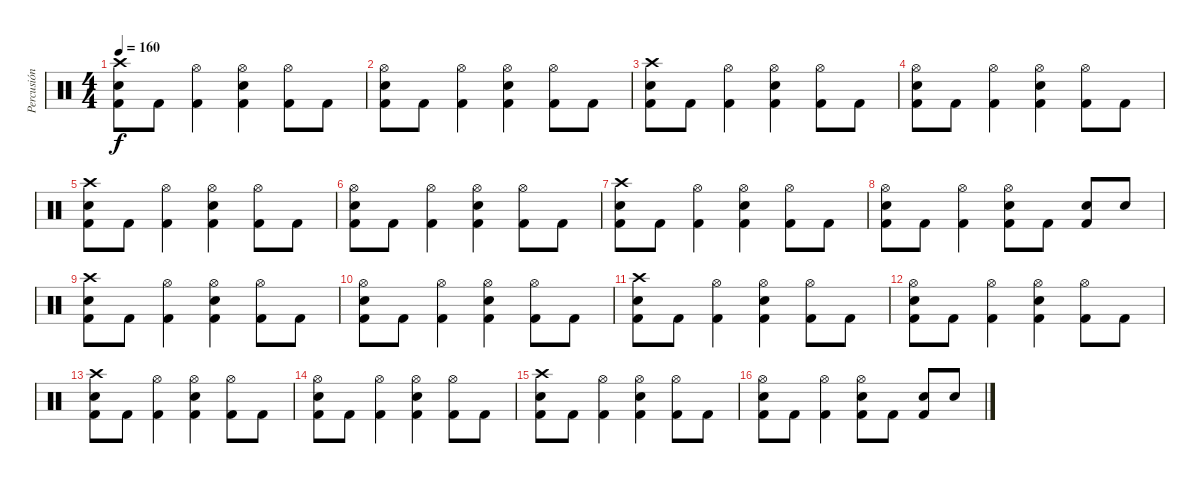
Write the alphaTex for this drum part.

\track ("Percusión" "Percusión") {instrument percussion}
\staff {score}
\articulation defaults
\ts (4 4)
\tempo 160
\clef neutral
\ks c
("Crash high (hit)" "Snare (hit) 2" "Kick (hit) 2").8{dy f} "Kick (hit) 2".8 ("Hi-Hat (open)" "Kick (hit) 2").4 ("Hi-Hat (open)" "Snare (hit) 2" "Kick (hit) 2").4 ("Hi-Hat (open)" "Kick (hit) 2").8 "Kick (hit) 2".8 |
("Hi-Hat (open)" "Snare (hit) 2" "Kick (hit) 2").8 "Kick (hit) 2".8 ("Hi-Hat (open)" "Kick (hit) 2").4 ("Hi-Hat (open)" "Snare (hit) 2" "Kick (hit) 2").4 ("Hi-Hat (open)" "Kick (hit) 2").8 "Kick (hit) 2".8 |
("Crash high (hit)" "Snare (hit) 2" "Kick (hit) 2").8 "Kick (hit) 2".8 ("Hi-Hat (open)" "Kick (hit) 2").4 ("Hi-Hat (open)" "Snare (hit) 2" "Kick (hit) 2").4 ("Hi-Hat (open)" "Kick (hit) 2").8 "Kick (hit) 2".8 |
("Hi-Hat (open)" "Snare (hit) 2" "Kick (hit) 2").8 "Kick (hit) 2".8 ("Hi-Hat (open)" "Kick (hit) 2").4 ("Hi-Hat (open)" "Snare (hit) 2" "Kick (hit) 2").4 ("Hi-Hat (open)" "Kick (hit) 2").8 "Kick (hit) 2".8 |
("Crash high (hit)" "Snare (hit) 2" "Kick (hit) 2").8 "Kick (hit) 2".8 ("Hi-Hat (open)" "Kick (hit) 2").4 ("Hi-Hat (open)" "Snare (hit) 2" "Kick (hit) 2").4 ("Hi-Hat (open)" "Kick (hit) 2").8 "Kick (hit) 2".8 |
("Hi-Hat (open)" "Snare (hit) 2" "Kick (hit) 2").8 "Kick (hit) 2".8 ("Hi-Hat (open)" "Kick (hit) 2").4 ("Hi-Hat (open)" "Snare (hit) 2" "Kick (hit) 2").4 ("Hi-Hat (open)" "Kick (hit) 2").8 "Kick (hit) 2".8 |
("Crash high (hit)" "Snare (hit) 2" "Kick (hit) 2").8 "Kick (hit) 2".8 ("Hi-Hat (open)" "Kick (hit) 2").4 ("Hi-Hat (open)" "Snare (hit) 2" "Kick (hit) 2").4 ("Hi-Hat (open)" "Kick (hit) 2").8 "Kick (hit) 2".8 |
("Hi-Hat (open)" "Snare (hit) 2" "Kick (hit) 2").8 "Kick (hit) 2".8 ("Hi-Hat (open)" "Kick (hit) 2").4 ("Hi-Hat (open)" "Snare (hit) 2" "Kick (hit) 2").8 "Kick (hit) 2".8 ("Snare (hit) 2" "Kick (hit) 2").8 "Snare (hit) 2".8 |
("Crash high (hit)" "Snare (hit) 2" "Kick (hit) 2").8 "Kick (hit) 2".8 ("Hi-Hat (open)" "Kick (hit) 2").4 ("Hi-Hat (open)" "Snare (hit) 2" "Kick (hit) 2").4 ("Hi-Hat (open)" "Kick (hit) 2").8 "Kick (hit) 2".8 |
("Hi-Hat (open)" "Snare (hit) 2" "Kick (hit) 2").8 "Kick (hit) 2".8 ("Hi-Hat (open)" "Kick (hit) 2").4 ("Hi-Hat (open)" "Snare (hit) 2" "Kick (hit) 2").4 ("Hi-Hat (open)" "Kick (hit) 2").8 "Kick (hit) 2".8 |
("Crash high (hit)" "Snare (hit) 2" "Kick (hit) 2").8 "Kick (hit) 2".8 ("Hi-Hat (open)" "Kick (hit) 2").4 ("Hi-Hat (open)" "Snare (hit) 2" "Kick (hit) 2").4 ("Hi-Hat (open)" "Kick (hit) 2").8 "Kick (hit) 2".8 |
("Hi-Hat (open)" "Snare (hit) 2" "Kick (hit) 2").8 "Kick (hit) 2".8 ("Hi-Hat (open)" "Kick (hit) 2").4 ("Hi-Hat (open)" "Snare (hit) 2" "Kick (hit) 2").4 ("Hi-Hat (open)" "Kick (hit) 2").8 "Kick (hit) 2".8 |
("Crash high (hit)" "Snare (hit) 2" "Kick (hit) 2").8 "Kick (hit) 2".8 ("Hi-Hat (open)" "Kick (hit) 2").4 ("Hi-Hat (open)" "Snare (hit) 2" "Kick (hit) 2").4 ("Hi-Hat (open)" "Kick (hit) 2").8 "Kick (hit) 2".8 |
("Hi-Hat (open)" "Snare (hit) 2" "Kick (hit) 2").8 "Kick (hit) 2".8 ("Hi-Hat (open)" "Kick (hit) 2").4 ("Hi-Hat (open)" "Snare (hit) 2" "Kick (hit) 2").4 ("Hi-Hat (open)" "Kick (hit) 2").8 "Kick (hit) 2".8 |
("Crash high (hit)" "Snare (hit) 2" "Kick (hit) 2").8 "Kick (hit) 2".8 ("Hi-Hat (open)" "Kick (hit) 2").4 ("Hi-Hat (open)" "Snare (hit) 2" "Kick (hit) 2").4 ("Hi-Hat (open)" "Kick (hit) 2").8 "Kick (hit) 2".8 |
("Hi-Hat (open)" "Snare (hit) 2" "Kick (hit) 2").8 "Kick (hit) 2".8 ("Hi-Hat (open)" "Kick (hit) 2").4 ("Hi-Hat (open)" "Snare (hit) 2" "Kick (hit) 2").8 "Kick (hit) 2".8 ("Snare (hit) 2" "Kick (hit) 2").8 "Snare (hit) 2".8
